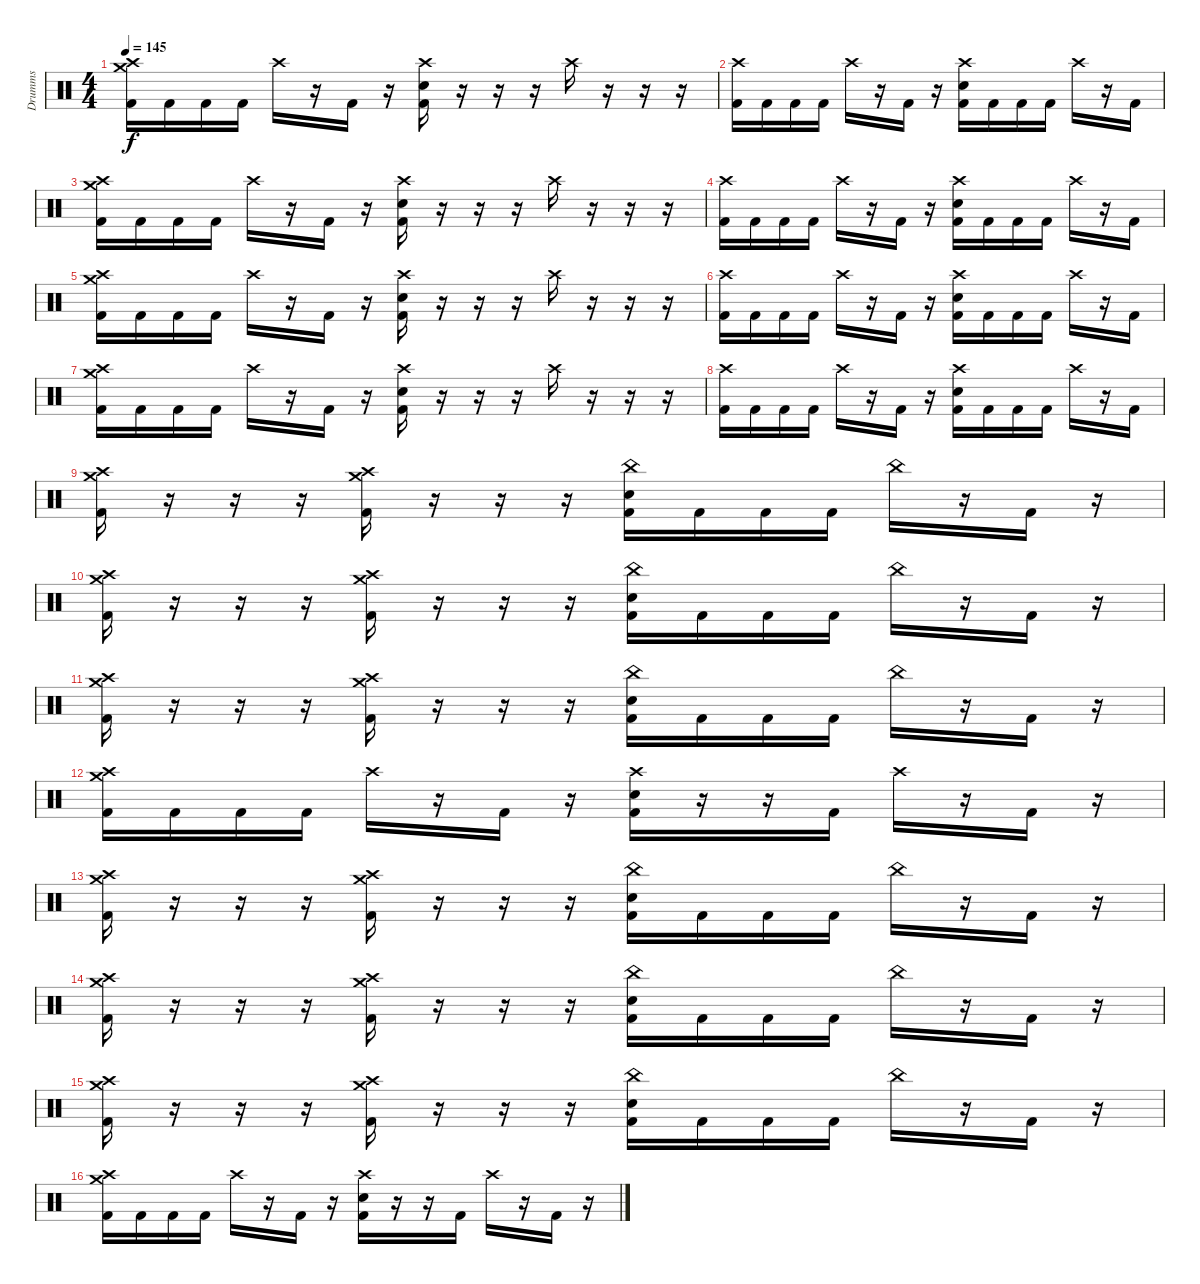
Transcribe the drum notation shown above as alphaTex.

\track ("Drumms" "Drumms") {instrument percussion}
\staff {score}
\articulation defaults
\ts (4 4)
\tempo 145
\clef neutral
\ks c
("Crash high (hit)" "Crash medium (hit)" "Kick (hit) 2").16{dy f} "Kick (hit) 2".16 "Kick (hit) 2".16 "Kick (hit) 2".16 "Crash high (hit)".16 r.16 "Kick (hit) 2".16 r.16 ("Crash high (hit)" "Electric Snare (hit)" "Kick (hit) 2").16 r.16 r.16 r.16 "Crash high (hit)".16 r.16 r.16 r.16 |
("Crash high (hit)" "Kick (hit) 2").16 "Kick (hit) 2".16 "Kick (hit) 2".16 "Kick (hit) 2".16 "Crash high (hit)".16 r.16 "Kick (hit) 2".16 r.16 ("Crash high (hit)" "Electric Snare (hit)" "Kick (hit) 2").16 "Kick (hit) 2".16 "Kick (hit) 2".16 "Kick (hit) 2".16 "Crash high (hit)".16 r.16 "Kick (hit) 2".16 |
("Crash high (hit)" "Crash medium (hit)" "Kick (hit) 2").16 "Kick (hit) 2".16 "Kick (hit) 2".16 "Kick (hit) 2".16 "Crash high (hit)".16 r.16 "Kick (hit) 2".16 r.16 ("Crash high (hit)" "Electric Snare (hit)" "Kick (hit) 2").16 r.16 r.16 r.16 "Crash high (hit)".16 r.16 r.16 r.16 |
("Crash high (hit)" "Kick (hit) 2").16 "Kick (hit) 2".16 "Kick (hit) 2".16 "Kick (hit) 2".16 "Crash high (hit)".16 r.16 "Kick (hit) 2".16 r.16 ("Crash high (hit)" "Electric Snare (hit)" "Kick (hit) 2").16 "Kick (hit) 2".16 "Kick (hit) 2".16 "Kick (hit) 2".16 "Crash high (hit)".16 r.16 "Kick (hit) 2".16 |
("Crash high (hit)" "Crash medium (hit)" "Kick (hit) 2").16 "Kick (hit) 2".16 "Kick (hit) 2".16 "Kick (hit) 2".16 "Crash high (hit)".16 r.16 "Kick (hit) 2".16 r.16 ("Crash high (hit)" "Electric Snare (hit)" "Kick (hit) 2").16 r.16 r.16 r.16 "Crash high (hit)".16 r.16 r.16 r.16 |
("Crash high (hit)" "Kick (hit) 2").16 "Kick (hit) 2".16 "Kick (hit) 2".16 "Kick (hit) 2".16 "Crash high (hit)".16 r.16 "Kick (hit) 2".16 r.16 ("Crash high (hit)" "Electric Snare (hit)" "Kick (hit) 2").16 "Kick (hit) 2".16 "Kick (hit) 2".16 "Kick (hit) 2".16 "Crash high (hit)".16 r.16 "Kick (hit) 2".16 |
("Crash high (hit)" "Crash medium (hit)" "Kick (hit) 2").16 "Kick (hit) 2".16 "Kick (hit) 2".16 "Kick (hit) 2".16 "Crash high (hit)".16 r.16 "Kick (hit) 2".16 r.16 ("Crash high (hit)" "Electric Snare (hit)" "Kick (hit) 2").16 r.16 r.16 r.16 "Crash high (hit)".16 r.16 r.16 r.16 |
("Crash high (hit)" "Kick (hit) 2").16 "Kick (hit) 2".16 "Kick (hit) 2".16 "Kick (hit) 2".16 "Crash high (hit)".16 r.16 "Kick (hit) 2".16 r.16 ("Crash high (hit)" "Electric Snare (hit)" "Kick (hit) 2").16 "Kick (hit) 2".16 "Kick (hit) 2".16 "Kick (hit) 2".16 "Crash high (hit)".16 r.16 "Kick (hit) 2".16 |
("Crash high (hit)" "Crash medium (hit)" "Kick (hit) 2").16 r.16 r.16 r.16 ("Crash high (hit)" "Crash medium (hit)" "Kick (hit) 2").16 r.16 r.16 r.16 ("China (hit)" "Electric Snare (hit)" "Kick (hit) 2").16 "Kick (hit) 2".16 "Kick (hit) 2".16 "Kick (hit) 2".16 "China (hit)".16 r.16 "Kick (hit) 2".16 r.16 |
("Crash high (hit)" "Crash medium (hit)" "Kick (hit) 2").16 r.16 r.16 r.16 ("Crash high (hit)" "Crash medium (hit)" "Kick (hit) 2").16 r.16 r.16 r.16 ("China (hit)" "Electric Snare (hit)" "Kick (hit) 2").16 "Kick (hit) 2".16 "Kick (hit) 2".16 "Kick (hit) 2".16 "China (hit)".16 r.16 "Kick (hit) 2".16 r.16 |
("Crash high (hit)" "Crash medium (hit)" "Kick (hit) 2").16 r.16 r.16 r.16 ("Crash high (hit)" "Crash medium (hit)" "Kick (hit) 2").16 r.16 r.16 r.16 ("China (hit)" "Electric Snare (hit)" "Kick (hit) 2").16 "Kick (hit) 2".16 "Kick (hit) 2".16 "Kick (hit) 2".16 "China (hit)".16 r.16 "Kick (hit) 2".16 r.16 |
("Crash medium (hit)" "Crash high (hit)" "Kick (hit) 2").16 "Kick (hit) 2".16 "Kick (hit) 2".16 "Kick (hit) 2".16 "Crash high (hit)".16 r.16 "Kick (hit) 2".16 r.16 ("Crash high (hit)" "Electric Snare (hit)" "Kick (hit) 2").16 r.16 r.16 "Kick (hit) 2".16 "Crash high (hit)".16 r.16 "Kick (hit) 2".16 r.16 |
("Crash high (hit)" "Crash medium (hit)" "Kick (hit) 2").16 r.16 r.16 r.16 ("Crash high (hit)" "Crash medium (hit)" "Kick (hit) 2").16 r.16 r.16 r.16 ("China (hit)" "Electric Snare (hit)" "Kick (hit) 2").16 "Kick (hit) 2".16 "Kick (hit) 2".16 "Kick (hit) 2".16 "China (hit)".16 r.16 "Kick (hit) 2".16 r.16 |
("Crash high (hit)" "Crash medium (hit)" "Kick (hit) 2").16 r.16 r.16 r.16 ("Crash high (hit)" "Crash medium (hit)" "Kick (hit) 2").16 r.16 r.16 r.16 ("China (hit)" "Electric Snare (hit)" "Kick (hit) 2").16 "Kick (hit) 2".16 "Kick (hit) 2".16 "Kick (hit) 2".16 "China (hit)".16 r.16 "Kick (hit) 2".16 r.16 |
("Crash high (hit)" "Crash medium (hit)" "Kick (hit) 2").16 r.16 r.16 r.16 ("Crash high (hit)" "Crash medium (hit)" "Kick (hit) 2").16 r.16 r.16 r.16 ("China (hit)" "Electric Snare (hit)" "Kick (hit) 2").16 "Kick (hit) 2".16 "Kick (hit) 2".16 "Kick (hit) 2".16 "China (hit)".16 r.16 "Kick (hit) 2".16 r.16 |
("Crash medium (hit)" "Crash high (hit)" "Kick (hit) 2").16 "Kick (hit) 2".16 "Kick (hit) 2".16 "Kick (hit) 2".16 "Crash high (hit)".16 r.16 "Kick (hit) 2".16 r.16 ("Crash high (hit)" "Electric Snare (hit)" "Kick (hit) 2").16 r.16 r.16 "Kick (hit) 2".16 "Crash high (hit)".16 r.16 "Kick (hit) 2".16 r.16
